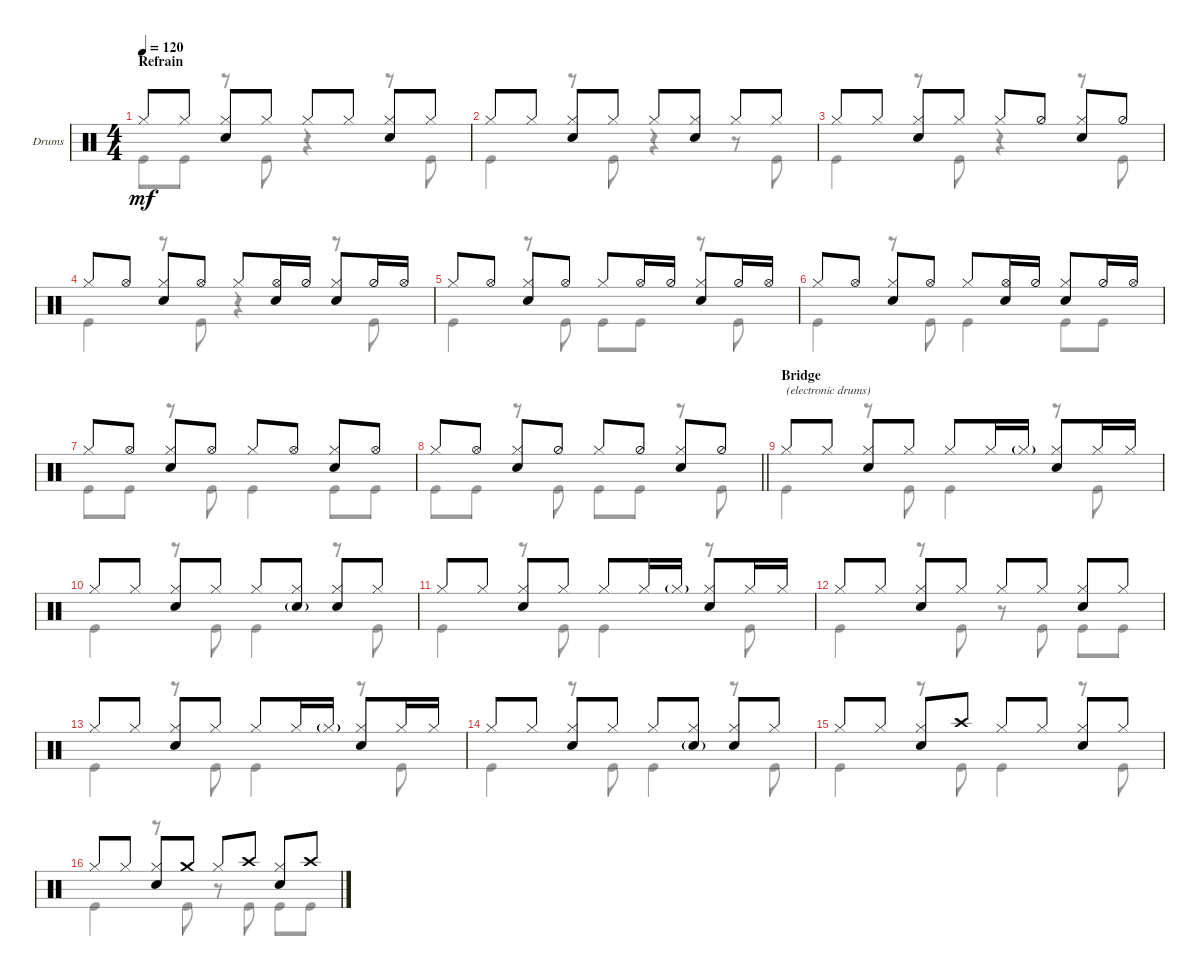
\defaultSystemsLayout 4
\bracketExtendMode groupsimilarinstruments
\firstSystemTrackNameOrientation horizontal
\otherSystemsTrackNameOrientation horizontal
\track ("Drums" "Drums") {multiBarRest instrument percussion}
\staff {score}
\articulation defaults
\voice
\ts (4 4)
\section ("" "Refrain")
\tempo 120
\clef neutral
\ks c "Hi-Hat (closed)".8{dy mf} "Hi-Hat (closed)".8
("Hi-Hat (closed)" "Snare (hit) 2").8 "Hi-Hat (closed)".8 "Hi-Hat (closed)".8 "Hi-Hat (closed)".8 ("Hi-Hat (closed)" "Snare (hit) 2").8 "Hi-Hat (closed)".8 |
"Hi-Hat (closed)".8 "Hi-Hat (closed)".8 ("Hi-Hat (closed)" "Snare (hit) 2").8 "Hi-Hat (closed)".8 "Hi-Hat (closed)".8 ("Hi-Hat (closed)" "Snare (hit) 2").8 "Hi-Hat (closed)".8 "Hi-Hat (closed)".8 |
"Hi-Hat (closed)".8 "Hi-Hat (closed)".8 ("Hi-Hat (closed)" "Snare (hit) 2").8 "Hi-Hat (closed)".8 "Hi-Hat (closed)".8 "Hi-Hat (half)".8 ("Hi-Hat (closed)" "Snare (hit) 2").8 "Hi-Hat (half)".8 |
"Hi-Hat (closed)".8 "Hi-Hat (open)".8 ("Hi-Hat (closed)" "Snare (hit) 2").8 "Hi-Hat (open)".8 "Hi-Hat (closed)".8 ("Hi-Hat (open)" "Snare (hit) 2").16 "Hi-Hat (half)".16 ("Hi-Hat (closed)" "Snare (hit) 2").8 "Hi-Hat (half)".16 "Hi-Hat (open)".16 |
"Hi-Hat (closed)".8 "Hi-Hat (open)".8 ("Hi-Hat (closed)" "Snare (hit) 2").8 "Hi-Hat (open)".8 "Hi-Hat (closed)".8 "Hi-Hat (open)".16 "Hi-Hat (half)".16 ("Hi-Hat (closed)" "Snare (hit) 2").8 "Hi-Hat (half)".16 "Hi-Hat (open)".16 |
"Hi-Hat (closed)".8 "Hi-Hat (open)".8 ("Hi-Hat (closed)" "Snare (hit) 2").8 "Hi-Hat (open)".8 "Hi-Hat (closed)".8 ("Hi-Hat (open)" "Snare (hit) 2").16 "Hi-Hat (half)".16 ("Hi-Hat (closed)" "Snare (hit) 2").8 "Hi-Hat (half)".16 "Hi-Hat (open)".16 |
"Hi-Hat (closed)".8 "Hi-Hat (open)".8 ("Hi-Hat (closed)" "Snare (hit) 2").8 "Hi-Hat (open)".8 "Hi-Hat (closed)".8 "Hi-Hat (open)".8 ("Hi-Hat (closed)" "Snare (hit) 2").8 "Hi-Hat (open)".8 |
\barLineRight lightlight "Hi-Hat (closed)".8 "Hi-Hat (open)".8
("Hi-Hat (closed)" "Snare (hit) 2").8 "Hi-Hat (half)".8 "Hi-Hat (closed)".8 "Hi-Hat (half)".8 ("Hi-Hat (closed)" "Snare (hit) 2").8 "Hi-Hat (half)".8 |
\section ("" "Bridge")
"Hi-Hat (closed)".8{txt "(electronic drums)"} "Hi-Hat (closed)".8 ("Hi-Hat (closed)" "Snare (hit) 2").8 "Hi-Hat (closed)".8 "Hi-Hat (closed)".8 "Hi-Hat (closed)".16 "Hi-Hat (closed)"{g}.16 ("Hi-Hat (closed)" "Snare (hit) 2").8 "Hi-Hat (closed)".16 "Hi-Hat (closed)".16 |
"Hi-Hat (closed)".8 "Hi-Hat (closed)".8 ("Hi-Hat (closed)" "Snare (hit) 2").8 "Hi-Hat (closed)".8 "Hi-Hat (closed)".8 ("Hi-Hat (closed)" "Snare (hit) 2"{g}).8 ("Hi-Hat (closed)" "Snare (hit) 2").8 "Hi-Hat (closed)".8 |
"Hi-Hat (closed)".8 "Hi-Hat (closed)".8 ("Hi-Hat (closed)" "Snare (hit) 2").8 "Hi-Hat (closed)".8 "Hi-Hat (closed)".8 "Hi-Hat (closed)".16 "Hi-Hat (closed)"{g}.16 ("Hi-Hat (closed)" "Snare (hit) 2").8 "Hi-Hat (closed)".16 "Hi-Hat (closed)".16 |
"Hi-Hat (closed)".8 "Hi-Hat (closed)".8 ("Hi-Hat (closed)" "Snare (hit) 2").8 "Hi-Hat (closed)".8 "Hi-Hat (closed)".8 "Hi-Hat (closed)".8 ("Hi-Hat (closed)" "Snare (hit) 2").8 "Hi-Hat (closed)".8 |
"Hi-Hat (closed)".8 "Hi-Hat (closed)".8 ("Hi-Hat (closed)" "Snare (hit) 2").8 "Hi-Hat (closed)".8 "Hi-Hat (closed)".8 "Hi-Hat (closed)".16 "Hi-Hat (closed)"{g}.16 ("Hi-Hat (closed)" "Snare (hit) 2").8 "Hi-Hat (closed)".16 "Hi-Hat (closed)".16 |
"Hi-Hat (closed)".8 "Hi-Hat (closed)".8 ("Hi-Hat (closed)" "Snare (hit) 2").8 "Hi-Hat (closed)".8 "Hi-Hat (closed)".8 ("Hi-Hat (closed)" "Snare (hit) 2"{g}).8 ("Hi-Hat (closed)" "Snare (hit) 2").8 "Hi-Hat (closed)".8 |
"Hi-Hat (closed)".8 "Hi-Hat (closed)".8 ("Hi-Hat (closed)" "Snare (hit) 2").8 "Crash high (hit)".8 "Hi-Hat (closed)".8 "Hi-Hat (closed)".8 ("Hi-Hat (closed)" "Snare (hit) 2").8 "Hi-Hat (closed)".8 |
"Hi-Hat (closed)".8 "Hi-Hat (closed)".8 ("Hi-Hat (closed)" "Snare (hit) 2").8 "Crash medium (hit)".8 "Hi-Hat (closed)".8 "Crash high (hit)".8 ("Hi-Hat (closed)" "Snare (hit) 2").8 "Crash high (hit)".8
\voice
\clef neutral
\ottava regular
\simile none
\ks c "Kick (hit)".8{dy mf} "Kick (hit)".8
r.8 "Kick (hit)".8 r.4 r.8 "Kick (hit)".8 |
"Kick (hit)".4 r.8 "Kick (hit)".8 r.4 r.8 "Kick (hit)".8 |
"Kick (hit)".4 r.8 "Kick (hit)".8 r.4 r.8 "Kick (hit)".8 |
"Kick (hit)".4 r.8 "Kick (hit)".8 r.4 r.8 "Kick (hit)".8 |
"Kick (hit)".4 r.8 "Kick (hit)".8 "Kick (hit)".8 "Kick (hit)".8 r.8 "Kick (hit)".8 |
"Kick (hit)".4 r.8 "Kick (hit)".8 "Kick (hit)".4 "Kick (hit)".8 "Kick (hit)".8 |
"Kick (hit)".8 "Kick (hit)".8 r.8 "Kick (hit)".8 "Kick (hit)".4 "Kick (hit)".8 "Kick (hit)".8 |
\barLineRight lightlight "Kick (hit)".8 "Kick (hit)".8
r.8 "Kick (hit)".8 "Kick (hit)".8 "Kick (hit)".8 r.8 "Kick (hit)".8 |
"Kick (hit)".4 r.8 "Kick (hit)".8 "Kick (hit)".4 r.8 "Kick (hit)".8 |
"Kick (hit)".4 r.8 "Kick (hit)".8 "Kick (hit)".4 r.8 "Kick (hit)".8 |
"Kick (hit)".4 r.8 "Kick (hit)".8 "Kick (hit)".4 r.8 "Kick (hit)".8 |
"Kick (hit)".4 r.8 "Kick (hit)".8 r.8 "Kick (hit)".8 "Kick (hit)".8 "Kick (hit)".8 |
"Kick (hit)".4 r.8 "Kick (hit)".8 "Kick (hit)".4 r.8 "Kick (hit)".8 |
"Kick (hit)".4 r.8 "Kick (hit)".8 "Kick (hit)".4 r.8 "Kick (hit)".8 |
"Kick (hit)".4 r.8 "Kick (hit)".8 "Kick (hit)".4 r.8 "Kick (hit)".8 |
"Kick (hit)".4 r.8 "Kick (hit)".8 r.8 "Kick (hit)".8 "Kick (hit)".8 "Kick (hit)".8
